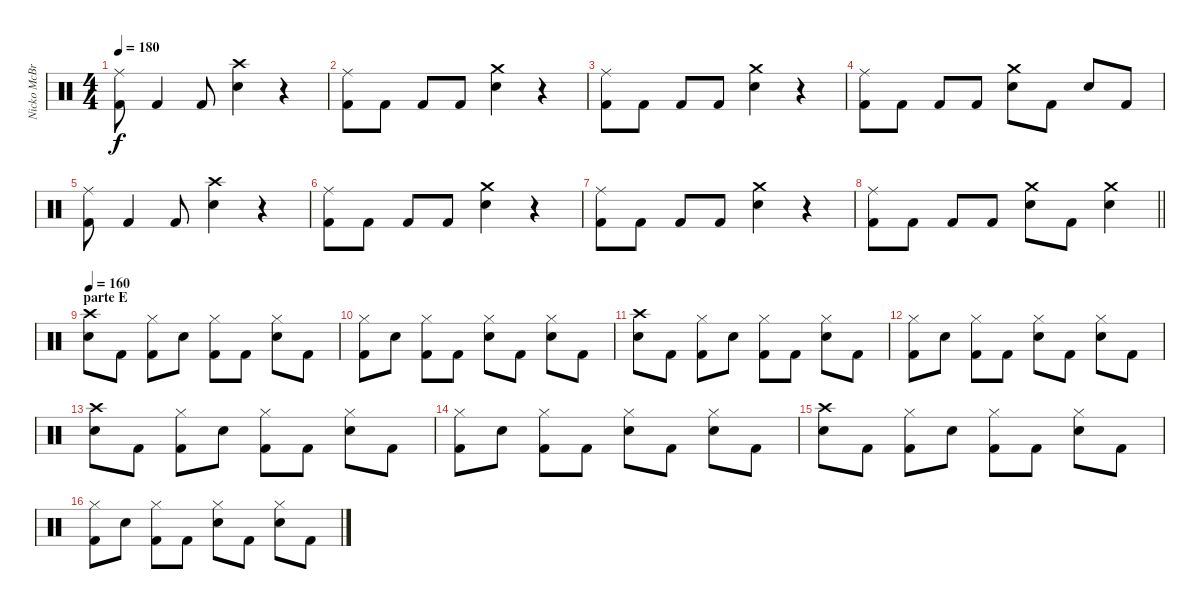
\track ("Nicko McBrain" "Nicko McBr") {instrument percussion}
\staff {score}
\articulation defaults
\ts (4 4)
\tempo 180
\clef neutral
\ks c
("Ride (middle)" "Kick (hit) 2").8{dy f} "Kick (hit) 2".4 "Kick (hit) 2".8 ("Crash high (hit)" "Snare (hit) 2").4 r.4 |
("Ride (middle)" "Kick (hit) 2").8 "Kick (hit) 2".8 "Kick (hit) 2".8 "Kick (hit) 2".8 ("Crash medium (hit)" "Snare (hit) 2").4 r.4 |
("Ride (middle)" "Kick (hit) 2").8 "Kick (hit) 2".8 "Kick (hit) 2".8 "Kick (hit) 2".8 ("Crash medium (hit)" "Snare (hit) 2").4 r.4 |
("Ride (middle)" "Kick (hit) 2").8 "Kick (hit) 2".8 "Kick (hit) 2".8 "Kick (hit) 2".8 ("Crash medium (hit)" "Snare (hit) 2").8 "Kick (hit) 2".8 "Snare (hit) 2".8 "Kick (hit) 2".8 |
("Ride (middle)" "Kick (hit) 2").8 "Kick (hit) 2".4 "Kick (hit) 2".8 ("Crash high (hit)" "Snare (hit) 2").4 r.4 |
("Ride (middle)" "Kick (hit) 2").8 "Kick (hit) 2".8 "Kick (hit) 2".8 "Kick (hit) 2".8 ("Crash medium (hit)" "Snare (hit) 2").4 r.4 |
("Ride (middle)" "Kick (hit) 2").8 "Kick (hit) 2".8 "Kick (hit) 2".8 "Kick (hit) 2".8 ("Crash medium (hit)" "Snare (hit) 2").4 r.4 |
\barLineRight lightlight
("Ride (middle)" "Kick (hit) 2").8 "Kick (hit) 2".8 "Kick (hit) 2".8 "Kick (hit) 2".8 ("Crash medium (hit)" "Snare (hit) 2").8 "Kick (hit) 2".8 ("Crash medium (hit)" "Snare (hit) 2").4 |
\section ("" "parte E")
\tempo 160
("Crash high (hit)" "Snare (hit) 2").8 "Kick (hit) 2".8 ("Hi-Hat (closed)" "Kick (hit) 2").8 "Snare (hit) 2".8 ("Hi-Hat (closed)" "Kick (hit) 2").8 "Kick (hit) 2".8 ("Hi-Hat (closed)" "Snare (hit) 2").8 "Kick (hit) 2".8 |
("Hi-Hat (closed)" "Kick (hit) 2").8 "Snare (hit) 2".8 ("Hi-Hat (closed)" "Kick (hit) 2").8 "Kick (hit) 2".8 ("Hi-Hat (closed)" "Snare (hit) 2").8 "Kick (hit) 2".8 ("Hi-Hat (closed)" "Snare (hit) 2").8 "Kick (hit) 2".8 |
("Crash high (hit)" "Snare (hit) 2").8 "Kick (hit) 2".8 ("Hi-Hat (closed)" "Kick (hit) 2").8 "Snare (hit) 2".8 ("Hi-Hat (closed)" "Kick (hit) 2").8 "Kick (hit) 2".8 ("Hi-Hat (closed)" "Snare (hit) 2").8 "Kick (hit) 2".8 |
("Hi-Hat (closed)" "Kick (hit) 2").8 "Snare (hit) 2".8 ("Hi-Hat (closed)" "Kick (hit) 2").8 "Kick (hit) 2".8 ("Hi-Hat (closed)" "Snare (hit) 2").8 "Kick (hit) 2".8 ("Hi-Hat (closed)" "Snare (hit) 2").8 "Kick (hit) 2".8 |
("Crash high (hit)" "Snare (hit) 2").8 "Kick (hit) 2".8 ("Hi-Hat (closed)" "Kick (hit) 2").8 "Snare (hit) 2".8 ("Hi-Hat (closed)" "Kick (hit) 2").8 "Kick (hit) 2".8 ("Hi-Hat (closed)" "Snare (hit) 2").8 "Kick (hit) 2".8 |
("Hi-Hat (closed)" "Kick (hit) 2").8 "Snare (hit) 2".8 ("Hi-Hat (closed)" "Kick (hit) 2").8 "Kick (hit) 2".8 ("Hi-Hat (closed)" "Snare (hit) 2").8 "Kick (hit) 2".8 ("Hi-Hat (closed)" "Snare (hit) 2").8 "Kick (hit) 2".8 |
("Crash high (hit)" "Snare (hit) 2").8 "Kick (hit) 2".8 ("Hi-Hat (closed)" "Kick (hit) 2").8 "Snare (hit) 2".8 ("Hi-Hat (closed)" "Kick (hit) 2").8 "Kick (hit) 2".8 ("Hi-Hat (closed)" "Snare (hit) 2").8 "Kick (hit) 2".8 |
("Hi-Hat (closed)" "Kick (hit) 2").8 "Snare (hit) 2".8 ("Hi-Hat (closed)" "Kick (hit) 2").8 "Kick (hit) 2".8 ("Hi-Hat (closed)" "Snare (hit) 2").8 "Kick (hit) 2".8 ("Hi-Hat (closed)" "Snare (hit) 2").8 "Kick (hit) 2".8
